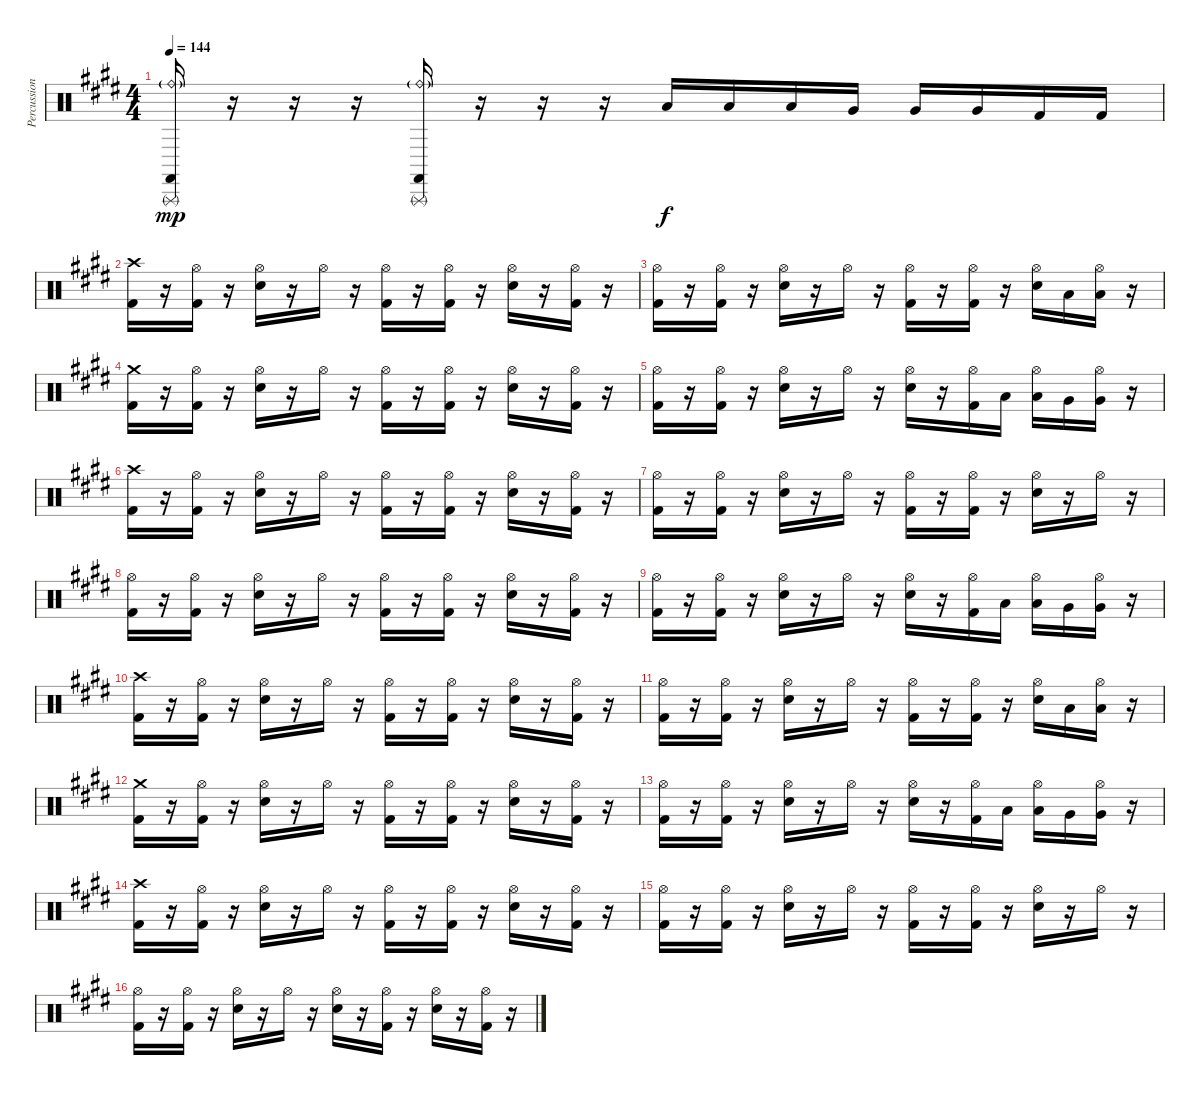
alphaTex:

\track ("Percussion" "Percussion") {instrument percussion}
\staff {score}
\articulation defaults
\ts (4 4)
\tempo 144
\clef neutral
\ks e
("Ride (bell)"{g} "Triangle (rnute)" "Castanets (hit)").16{dy mp} r.16 r.16 r.16 ("Ride (bell)"{g} "Triangle (rnute)" "Castanets (hit)").16 r.16 r.16 r.16 "Low Tom (hit)".16{dy f} "Low Tom (hit)".16 "Low Tom (hit)".16 "Very Low Tom (hit)".16 "Very Low Tom (hit)".16 "Very Low Tom (hit)".16 "Kick (hit) 2".16 "Kick (hit) 2".16 |
("Crash high (hit)" "Kick (hit) 2").16 r.16 ("Hi-Hat (open)" "Kick (hit) 2").16 r.16 ("Hi-Hat (open)" "Snare (hit) 2").16 r.16 "Hi-Hat (open)".16 r.16 ("Hi-Hat (open)" "Kick (hit) 2").16 r.16 ("Hi-Hat (open)" "Kick (hit) 2").16 r.16 ("Hi-Hat (open)" "Snare (hit) 2").16 r.16 ("Hi-Hat (open)" "Kick (hit) 2").16 r.16 |
("Hi-Hat (open)" "Kick (hit) 2").16 r.16 ("Hi-Hat (open)" "Kick (hit) 2").16 r.16 ("Hi-Hat (open)" "Snare (hit) 2").16 r.16 "Hi-Hat (open)".16 r.16 ("Hi-Hat (open)" "Kick (hit) 2").16 r.16 ("Hi-Hat (open)" "Kick (hit) 2").16 r.16 ("Hi-Hat (open)" "Snare (hit) 2").16 "Low Tom (hit)".16 ("Hi-Hat (open)" "Low Tom (hit)").16 r.16 |
("Crash medium (hit)" "Kick (hit) 2").16 r.16 ("Hi-Hat (open)" "Kick (hit) 2").16 r.16 ("Hi-Hat (open)" "Snare (hit) 2").16 r.16 "Hi-Hat (open)".16 r.16 ("Hi-Hat (open)" "Kick (hit) 2").16 r.16 ("Hi-Hat (open)" "Kick (hit) 2").16 r.16 ("Hi-Hat (open)" "Snare (hit) 2").16 r.16 ("Hi-Hat (open)" "Kick (hit) 2").16 r.16 |
("Hi-Hat (open)" "Kick (hit) 2").16 r.16 ("Hi-Hat (open)" "Kick (hit) 2").16 r.16 ("Hi-Hat (open)" "Snare (hit) 2").16 r.16 "Hi-Hat (open)".16 r.16 ("Hi-Hat (open)" "Snare (hit) 2").16 r.16 ("Hi-Hat (open)" "Kick (hit) 2").16 "Low Tom (hit)".16 ("Hi-Hat (open)" "Low Tom (hit)").16 "Very Low Tom (hit)".16 ("Hi-Hat (open)" "Very Low Tom (hit)").16 r.16 |
("Crash high (hit)" "Kick (hit) 2").16 r.16 ("Hi-Hat (open)" "Kick (hit) 2").16 r.16 ("Hi-Hat (open)" "Snare (hit) 2").16 r.16 "Hi-Hat (open)".16 r.16 ("Hi-Hat (open)" "Kick (hit) 2").16 r.16 ("Hi-Hat (open)" "Kick (hit) 2").16 r.16 ("Hi-Hat (open)" "Snare (hit) 2").16 r.16 ("Hi-Hat (open)" "Kick (hit) 2").16 r.16 |
("Hi-Hat (open)" "Kick (hit) 2").16 r.16 ("Hi-Hat (open)" "Kick (hit) 2").16 r.16 ("Hi-Hat (open)" "Snare (hit) 2").16 r.16 "Hi-Hat (open)".16 r.16 ("Hi-Hat (open)" "Kick (hit) 2").16 r.16 ("Hi-Hat (open)" "Kick (hit) 2").16 r.16 ("Hi-Hat (open)" "Snare (hit) 2").16 r.16 "Hi-Hat (open)".16 r.16 |
("Hi-Hat (open)" "Kick (hit) 2").16 r.16 ("Hi-Hat (open)" "Kick (hit) 2").16 r.16 ("Hi-Hat (open)" "Snare (hit) 2").16 r.16 "Hi-Hat (open)".16 r.16 ("Hi-Hat (open)" "Kick (hit) 2").16 r.16 ("Hi-Hat (open)" "Kick (hit) 2").16 r.16 ("Hi-Hat (open)" "Snare (hit) 2").16 r.16 ("Hi-Hat (open)" "Kick (hit) 2").16 r.16 |
("Hi-Hat (open)" "Kick (hit) 2").16 r.16 ("Hi-Hat (open)" "Kick (hit) 2").16 r.16 ("Hi-Hat (open)" "Snare (hit) 2").16 r.16 "Hi-Hat (open)".16 r.16 ("Hi-Hat (open)" "Snare (hit) 2").16 r.16 ("Hi-Hat (open)" "Kick (hit) 2").16 "Low Tom (hit)".16 ("Hi-Hat (open)" "Low Tom (hit)").16 "Very Low Tom (hit)".16 ("Hi-Hat (open)" "Very Low Tom (hit)").16 r.16 |
("Crash high (hit)" "Kick (hit) 2").16 r.16 ("Hi-Hat (open)" "Kick (hit) 2").16 r.16 ("Hi-Hat (open)" "Snare (hit) 2").16 r.16 "Hi-Hat (open)".16 r.16 ("Hi-Hat (open)" "Kick (hit) 2").16 r.16 ("Hi-Hat (open)" "Kick (hit) 2").16 r.16 ("Hi-Hat (open)" "Snare (hit) 2").16 r.16 ("Hi-Hat (open)" "Kick (hit) 2").16 r.16 |
("Hi-Hat (open)" "Kick (hit) 2").16 r.16 ("Hi-Hat (open)" "Kick (hit) 2").16 r.16 ("Hi-Hat (open)" "Snare (hit) 2").16 r.16 "Hi-Hat (open)".16 r.16 ("Hi-Hat (open)" "Kick (hit) 2").16 r.16 ("Hi-Hat (open)" "Kick (hit) 2").16 r.16 ("Hi-Hat (open)" "Snare (hit) 2").16 "Low Tom (hit)".16 ("Hi-Hat (open)" "Low Tom (hit)").16 r.16 |
("Crash medium (hit)" "Kick (hit) 2").16 r.16 ("Hi-Hat (open)" "Kick (hit) 2").16 r.16 ("Hi-Hat (open)" "Snare (hit) 2").16 r.16 "Hi-Hat (open)".16 r.16 ("Hi-Hat (open)" "Kick (hit) 2").16 r.16 ("Hi-Hat (open)" "Kick (hit) 2").16 r.16 ("Hi-Hat (open)" "Snare (hit) 2").16 r.16 ("Hi-Hat (open)" "Kick (hit) 2").16 r.16 |
("Hi-Hat (open)" "Kick (hit) 2").16 r.16 ("Hi-Hat (open)" "Kick (hit) 2").16 r.16 ("Hi-Hat (open)" "Snare (hit) 2").16 r.16 "Hi-Hat (open)".16 r.16 ("Hi-Hat (open)" "Snare (hit) 2").16 r.16 ("Hi-Hat (open)" "Kick (hit) 2").16 "Low Tom (hit)".16 ("Hi-Hat (open)" "Low Tom (hit)").16 "Very Low Tom (hit)".16 ("Hi-Hat (open)" "Very Low Tom (hit)").16 r.16 |
("Crash high (hit)" "Kick (hit) 2").16 r.16 ("Hi-Hat (open)" "Kick (hit) 2").16 r.16 ("Hi-Hat (open)" "Snare (hit) 2").16 r.16 "Hi-Hat (open)".16 r.16 ("Hi-Hat (open)" "Kick (hit) 2").16 r.16 ("Hi-Hat (open)" "Kick (hit) 2").16 r.16 ("Hi-Hat (open)" "Snare (hit) 2").16 r.16 ("Hi-Hat (open)" "Kick (hit) 2").16 r.16 |
("Hi-Hat (open)" "Kick (hit) 2").16 r.16 ("Hi-Hat (open)" "Kick (hit) 2").16 r.16 ("Hi-Hat (open)" "Snare (hit) 2").16 r.16 "Hi-Hat (open)".16 r.16 ("Hi-Hat (open)" "Kick (hit) 2").16 r.16 ("Hi-Hat (open)" "Kick (hit) 2").16 r.16 ("Hi-Hat (open)" "Snare (hit) 2").16 r.16 "Hi-Hat (open)".16 r.16 |
("Hi-Hat (open)" "Kick (hit) 2").16 r.16 ("Hi-Hat (open)" "Kick (hit) 2").16 r.16 ("Hi-Hat (open)" "Snare (hit) 2").16 r.16 "Hi-Hat (open)".16 r.16 ("Hi-Hat (open)" "Snare (hit) 2").16 r.16 ("Hi-Hat (open)" "Kick (hit) 2").16 r.16 ("Hi-Hat (open)" "Snare (hit) 2").16 r.16 ("Hi-Hat (open)" "Kick (hit) 2").16 r.16
